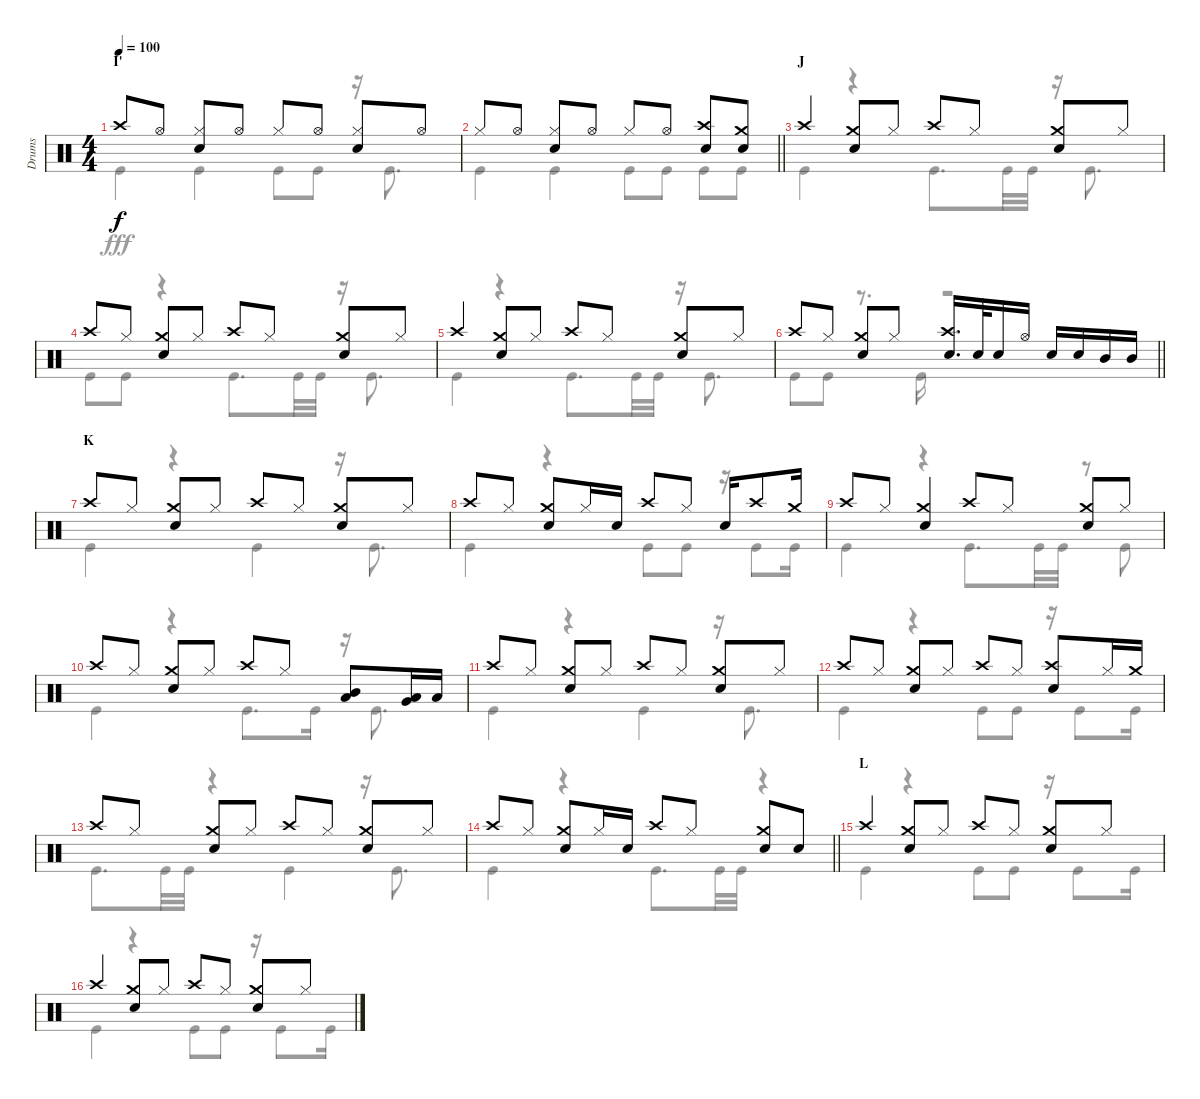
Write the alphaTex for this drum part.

\track ("Drums" "Drums") {instrument percussion}
\staff {score}
\articulation defaults
\voice
\ts (4 4)
\section ("" "I'")
\tempo 100
\clef neutral
\ks c "Crash high (hit)".8{dy f} "Hi-Hat (open)".8
("Hi-Hat (closed)" "Snare (hit) 2").8 "Hi-Hat (open)".8 "Hi-Hat (closed)".8 "Hi-Hat (open)".8 ("Hi-Hat (closed)" "Snare (hit) 2").8 "Hi-Hat (open)".8 |
\barLineRight lightlight "Hi-Hat (closed)".8 "Hi-Hat (open)".8
("Hi-Hat (closed)" "Snare (hit) 2").8 "Hi-Hat (open)".8 "Hi-Hat (closed)".8 "Hi-Hat (open)".8 ("Crash high (hit)" "Snare (hit) 2").8 ("Crash medium (hit)" "Snare (hit) 2").8 |
\section ("" "J")
"Crash high (hit)".4 ("Crash medium (hit)" "Snare (hit) 2").8 "Hi-Hat (closed)".8 "Crash high (hit)".8 "Hi-Hat (closed)".8 ("Crash medium (hit)" "Snare (hit) 2").8 "Hi-Hat (closed)".8 |
"Crash high (hit)".8 "Hi-Hat (closed)".8 ("Crash medium (hit)" "Snare (hit) 2").8 "Hi-Hat (closed)".8 "Crash high (hit)".8 "Hi-Hat (closed)".8 ("Crash medium (hit)" "Snare (hit) 2").8 "Hi-Hat (closed)".8 |
"Crash high (hit)".4 ("Crash medium (hit)" "Snare (hit) 2").8 "Hi-Hat (closed)".8 "Crash high (hit)".8 "Hi-Hat (closed)".8 ("Crash medium (hit)" "Snare (hit) 2").8 "Hi-Hat (closed)".8 |
\barLineRight lightlight "Crash high (hit)".8 "Hi-Hat (closed)".8
("Crash medium (hit)" "Snare (hit) 2").8 "Hi-Hat (closed)".8 ("Crash high (hit)" "Snare (hit) 2").16{d} "Snare (hit) 2".32 "Snare (hit) 2".16 "Hi-Hat (open)".16 "Snare (hit) 2".16 "Snare (hit) 2".16 "Mid Tom (hit)".16 "Mid Tom (hit)".16 |
\section ("" "K")
"Crash high (hit)".8 "Hi-Hat (closed)".8 ("Crash medium (hit)" "Snare (hit) 2").8 "Hi-Hat (closed)".8 "Crash high (hit)".8 "Hi-Hat (closed)".8 ("Crash medium (hit)" "Snare (hit) 2").8 "Hi-Hat (closed)".8 |
"Crash high (hit)".8 "Hi-Hat (closed)".8 ("Crash medium (hit)" "Snare (hit) 2").8 "Hi-Hat (closed)".16 "Snare (hit) 2".16 "Crash high (hit)".8 "Hi-Hat (closed)".8 "Snare (hit) 2".16 "Crash high (hit)".8 "Crash medium (hit)".16 |
"Crash high (hit)".8 "Hi-Hat (closed)".8 ("Crash medium (hit)" "Snare (hit) 2").4 "Crash high (hit)".8 "Hi-Hat (closed)".8 ("Crash medium (hit)" "Snare (hit) 2").8 "Hi-Hat (closed)".8 |
"Crash high (hit)".8 "Hi-Hat (closed)".8 ("Crash medium (hit)" "Snare (hit) 2").8 "Hi-Hat (closed)".8 "Crash high (hit)".8 "Hi-Hat (closed)".8 ("Mid Tom (hit)" "Low Tom (hit)").8 ("Low Tom (hit)" "Very Low Tom (hit)").16 "Low Tom (hit)".16 |
"Crash high (hit)".8 "Hi-Hat (closed)".8 ("Crash medium (hit)" "Snare (hit) 2").8 "Hi-Hat (closed)".8 "Crash high (hit)".8 "Hi-Hat (closed)".8 ("Crash medium (hit)" "Snare (hit) 2").8 "Hi-Hat (closed)".8 |
"Crash high (hit)".8 "Hi-Hat (closed)".8 ("Crash medium (hit)" "Snare (hit) 2").8 "Hi-Hat (closed)".8 "Crash high (hit)".8 "Hi-Hat (closed)".8 ("Crash high (hit)" "Snare (hit) 2").8 "Hi-Hat (closed)".16 "Crash medium (hit)".16 |
"Crash high (hit)".8 "Hi-Hat (closed)".8 ("Crash medium (hit)" "Snare (hit) 2").8 "Hi-Hat (closed)".8 "Crash high (hit)".8 "Hi-Hat (closed)".8 ("Crash medium (hit)" "Snare (hit) 2").8 "Hi-Hat (closed)".8 |
\barLineRight lightlight "Crash high (hit)".8 "Hi-Hat (closed)".8
("Crash medium (hit)" "Snare (hit) 2").8 "Hi-Hat (closed)".16 "Snare (hit) 2".16 "Crash high (hit)".8 "Hi-Hat (closed)".8 ("Crash medium (hit)" "Snare (hit) 2").8 "Snare (hit) 2".8 |
\section ("" "L")
"Crash high (hit)".4 ("Crash medium (hit)" "Snare (hit) 2").8 "Hi-Hat (closed)".8 "Crash high (hit)".8 "Hi-Hat (closed)".8 ("Crash medium (hit)" "Snare (hit) 2").8 "Hi-Hat (closed)".8 |
"Crash high (hit)".4 ("Crash medium (hit)" "Snare (hit) 2").8 "Hi-Hat (closed)".8 "Crash high (hit)".8 "Hi-Hat (closed)".8 ("Crash medium (hit)" "Snare (hit) 2").8 "Hi-Hat (closed)".8
\voice
\clef neutral
\ottava regular
\simile none
\ks c "Kick (hit)".4{dy fff} "Kick (hit)".4 "Kick (hit)".8 "Kick (hit)".8
r.16 "Kick (hit)".8{d} |
\barLineRight lightlight "Kick (hit)".4 "Kick (hit)".4 "Kick (hit)".8 "Kick (hit)".8 "Kick (hit)".8 "Kick (hit)".8
|
"Kick (hit)".4 r.4 "Kick (hit)".8{d} "Kick (hit)".32 "Kick (hit)".32 r.16 "Kick (hit)".8{d} |
"Kick (hit)".8 "Kick (hit)".8 r.4 "Kick (hit)".8{d} "Kick (hit)".32 "Kick (hit)".32 r.16 "Kick (hit)".8{d} |
"Kick (hit)".4 r.4 "Kick (hit)".8{d} "Kick (hit)".32 "Kick (hit)".32 r.16 "Kick (hit)".8{d} |
\barLineRight lightlight "Kick (hit)".8 "Kick (hit)".8
r.8{d} "Kick (hit)".16 r.2 |
"Kick (hit)".4 r.4 "Kick (hit)".4 r.16 "Kick (hit)".8{d} |
"Kick (hit)".4 r.4 "Kick (hit)".8 "Kick (hit)".8 r.16 "Kick (hit)".8 "Kick (hit)".16 |
"Kick (hit)".4 r.4 "Kick (hit)".8{d} "Kick (hit)".32 "Kick (hit)".32 r.8 "Kick (hit)".8 |
"Kick (hit)".4 r.4 "Kick (hit)".8{d} "Kick (hit)".16 r.16 "Kick (hit)".8{d} |
"Kick (hit)".4 r.4 "Kick (hit)".4 r.16 "Kick (hit)".8{d} |
"Kick (hit)".4 r.4 "Kick (hit)".8 "Kick (hit)".8 r.16 "Kick (hit)".8 "Kick (hit)".16 |
"Kick (hit)".8{d} "Kick (hit)".32 "Kick (hit)".32 r.4 "Kick (hit)".4 r.16 "Kick (hit)".8{d} |
\barLineRight lightlight "Kick (hit)".4
r.4 "Kick (hit)".8{d} "Kick (hit)".32 "Kick (hit)".32 r.4 |
"Kick (hit)".4 r.4 "Kick (hit)".8 "Kick (hit)".8 r.16 "Kick (hit)".8 "Kick (hit)".16 |
"Kick (hit)".4 r.4 "Kick (hit)".8 "Kick (hit)".8 r.16 "Kick (hit)".8 "Kick (hit)".16
